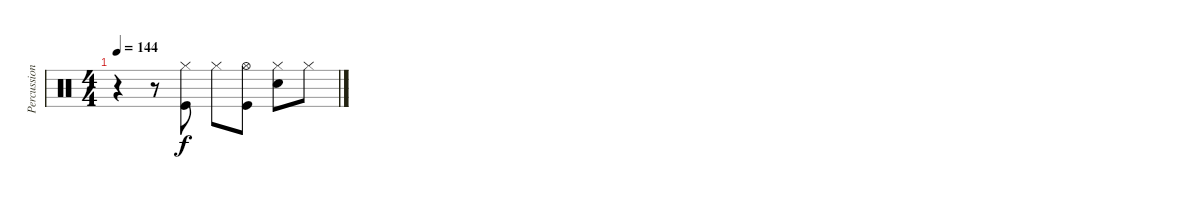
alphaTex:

\track ("Percussions" "Percussion") {instrument percussion}
\staff {score}
\articulation defaults
\ts (4 4)
\tempo 144
\clef neutral
\ks c
r.4{dy f} r.8 ("Hi-Hat (closed)" "Kick (hit)").8 "Hi-Hat (closed)".8 ("Hi-Hat (open)" "Kick (hit)").8 ("Hi-Hat (closed)" "Snare (hit) 2").8 "Hi-Hat (closed)".8
